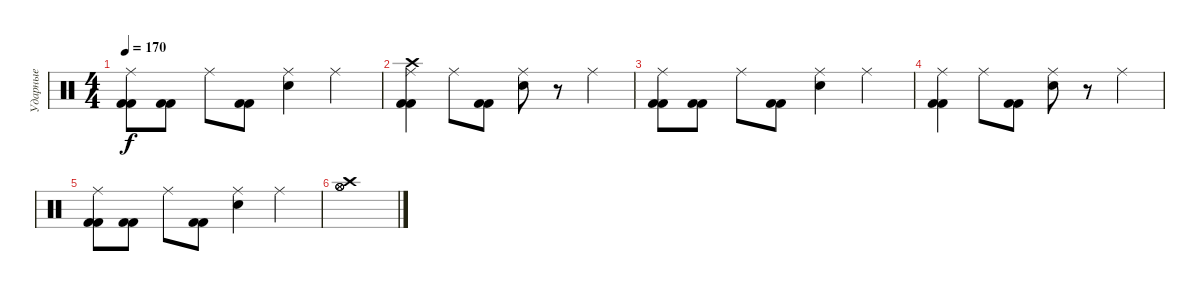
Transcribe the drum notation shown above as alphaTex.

\track ("Ударные" "Ударные") {instrument percussion}
\staff {score}
\articulation defaults
\ts (4 4)
\tempo 170
\clef neutral
\ks c
("Ride (middle)" "Kick (hit) 2" "Kick (hit) 2").8{dy f} ("Kick (hit) 2" "Kick (hit) 2").8 "Ride (middle)".8 ("Kick (hit) 2" "Kick (hit) 2").8 ("Ride (middle)" "Electric Snare (hit)").4 "Ride (middle)".4 |
("Crash high (hit)" "Ride (middle)" "Kick (hit) 2" "Kick (hit) 2").4 "Ride (middle)".8 ("Kick (hit) 2" "Kick (hit) 2").8 ("Ride (middle)" "Electric Snare (hit)").8 r.8 "Ride (middle)".4 |
("Ride (middle)" "Kick (hit) 2" "Kick (hit) 2").8 ("Kick (hit) 2" "Kick (hit) 2").8 "Ride (middle)".8 ("Kick (hit) 2" "Kick (hit) 2").8 ("Ride (middle)" "Electric Snare (hit)").4 "Ride (middle)".4 |
("Ride (middle)" "Kick (hit) 2" "Kick (hit) 2").4 "Ride (middle)".8 ("Kick (hit) 2" "Kick (hit) 2").8 ("Ride (middle)" "Electric Snare (hit)").8 r.8 "Ride (middle)".4 |
("Ride (middle)" "Kick (hit) 2" "Kick (hit) 2").8 ("Kick (hit) 2" "Kick (hit) 2").8 "Ride (middle)".8 ("Kick (hit) 2" "Kick (hit) 2").8 ("Ride (middle)" "Electric Snare (hit)").4 "Ride (middle)".4 |
("Crash high (hit)" "Hi-Hat (open)" "Hi-Hat (open)" "Hi-Hat (open)").1
